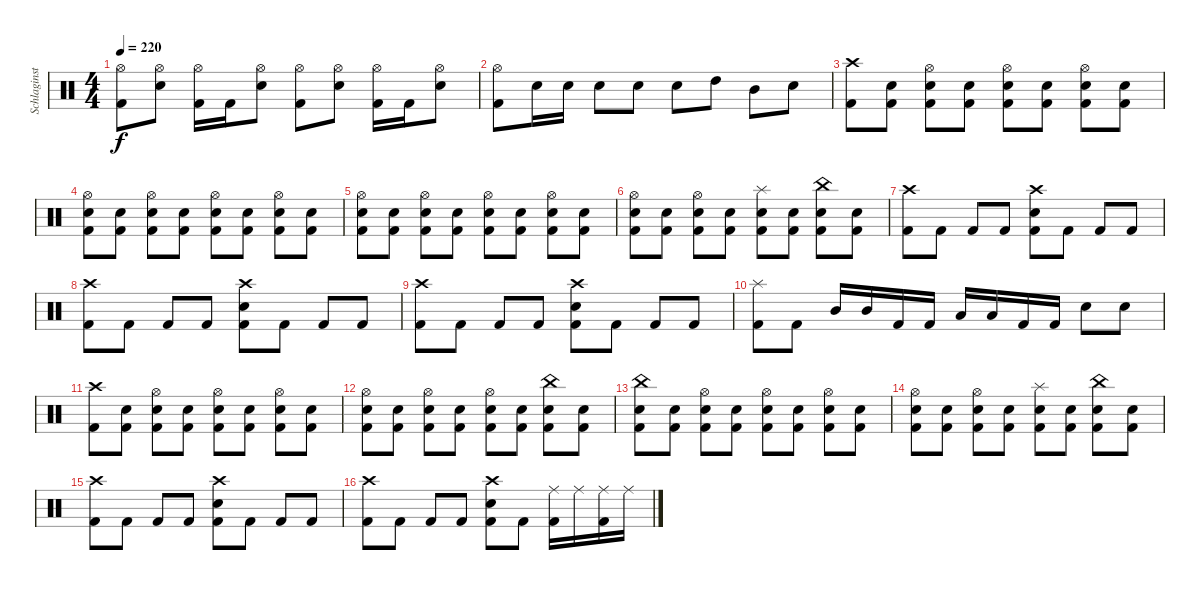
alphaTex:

\track ("Schlaginstrumente - Auswahl" "Schlaginst") {instrument percussion}
\staff {score}
\articulation defaults
\ts (4 4)
\tempo 220
\clef neutral
\ks c
("Hi-Hat (open)" "Kick (hit) 2").8{dy f} ("Hi-Hat (open)" "Snare (hit) 2").8 ("Hi-Hat (open)" "Kick (hit) 2").16 "Kick (hit) 2".16 ("Hi-Hat (open)" "Snare (hit) 2").8 ("Hi-Hat (open)" "Kick (hit) 2").8 ("Hi-Hat (open)" "Snare (hit) 2").8 ("Hi-Hat (open)" "Kick (hit) 2").16 "Kick (hit) 2".16 ("Hi-Hat (open)" "Snare (hit) 2").8 |
("Hi-Hat (open)" "Kick (hit) 2").8 "Snare (hit) 2".16 "Snare (hit) 2".16 "Snare (hit) 2".8 "Snare (hit) 2".8 "Snare (hit) 2".8 "High Tom (hit)".8 "Mid Tom (hit)".8 "Snare (hit) 2".8 |
("Crash high (hit)" "Kick (hit) 2").8 ("Snare (hit) 2" "Kick (hit) 2").8 ("Hi-Hat (open)" "Snare (hit) 2" "Kick (hit) 2").8 ("Snare (hit) 2" "Kick (hit) 2").8 ("Hi-Hat (open)" "Snare (hit) 2" "Kick (hit) 2").8 ("Snare (hit) 2" "Kick (hit) 2").8 ("Hi-Hat (open)" "Snare (hit) 2" "Kick (hit) 2").8 ("Snare (hit) 2" "Kick (hit) 2").8 |
("Hi-Hat (open)" "Snare (hit) 2" "Kick (hit) 2").8 ("Snare (hit) 2" "Kick (hit) 2").8 ("Hi-Hat (open)" "Snare (hit) 2" "Kick (hit) 2").8 ("Snare (hit) 2" "Kick (hit) 2").8 ("Hi-Hat (open)" "Snare (hit) 2" "Kick (hit) 2").8 ("Snare (hit) 2" "Kick (hit) 2").8 ("Hi-Hat (open)" "Snare (hit) 2" "Kick (hit) 2").8 ("Snare (hit) 2" "Kick (hit) 2").8 |
("Hi-Hat (open)" "Snare (hit) 2" "Kick (hit) 2").8 ("Snare (hit) 2" "Kick (hit) 2").8 ("Hi-Hat (open)" "Snare (hit) 2" "Kick (hit) 2").8 ("Snare (hit) 2" "Kick (hit) 2").8 ("Hi-Hat (open)" "Snare (hit) 2" "Kick (hit) 2").8 ("Snare (hit) 2" "Kick (hit) 2").8 ("Hi-Hat (open)" "Snare (hit) 2" "Kick (hit) 2").8 ("Snare (hit) 2" "Kick (hit) 2").8 |
("Hi-Hat (open)" "Snare (hit) 2" "Kick (hit) 2").8 ("Snare (hit) 2" "Kick (hit) 2").8 ("Hi-Hat (open)" "Snare (hit) 2" "Kick (hit) 2").8 ("Snare (hit) 2" "Kick (hit) 2").8 ("Splash (hit)" "Snare (hit) 2" "Kick (hit) 2").8 ("Snare (hit) 2" "Kick (hit) 2").8 ("China (hit)" "Snare (hit) 2" "Kick (hit) 2").8 ("Snare (hit) 2" "Kick (hit) 2").8 |
("Crash high (hit)" "Kick (hit) 2").8 "Kick (hit) 2".8 "Kick (hit) 2".8 "Kick (hit) 2".8 ("Crash high (hit)" "Snare (hit) 2" "Kick (hit) 2").8 "Kick (hit) 2".8 "Kick (hit) 2".8 "Kick (hit) 2".8 |
("Crash high (hit)" "Kick (hit) 2").8 "Kick (hit) 2".8 "Kick (hit) 2".8 "Kick (hit) 2".8 ("Crash high (hit)" "Snare (hit) 2" "Kick (hit) 2").8 "Kick (hit) 2".8 "Kick (hit) 2".8 "Kick (hit) 2".8 |
("Crash high (hit)" "Kick (hit) 2").8 "Kick (hit) 2".8 "Kick (hit) 2".8 "Kick (hit) 2".8 ("Crash high (hit)" "Snare (hit) 2" "Kick (hit) 2").8 "Kick (hit) 2".8 "Kick (hit) 2".8 "Kick (hit) 2".8 |
("Splash (hit)" "Kick (hit) 2").8 "Kick (hit) 2".8 "Mid Tom (hit)".16 "Mid Tom (hit)".16 "Kick (hit) 2".16 "Kick (hit) 2".16 "Low Tom (hit)".16 "Low Tom (hit)".16 "Kick (hit) 2".16 "Kick (hit) 2".16 "Snare (hit) 2".8 "Snare (hit) 2".8 |
("Crash high (hit)" "Kick (hit) 2").8 ("Snare (hit) 2" "Kick (hit) 2").8 ("Hi-Hat (open)" "Snare (hit) 2" "Kick (hit) 2").8 ("Snare (hit) 2" "Kick (hit) 2").8 ("Hi-Hat (open)" "Snare (hit) 2" "Kick (hit) 2").8 ("Snare (hit) 2" "Kick (hit) 2").8 ("Hi-Hat (open)" "Snare (hit) 2" "Kick (hit) 2").8 ("Snare (hit) 2" "Kick (hit) 2").8 |
("Hi-Hat (open)" "Snare (hit) 2" "Kick (hit) 2").8 ("Snare (hit) 2" "Kick (hit) 2").8 ("Hi-Hat (open)" "Snare (hit) 2" "Kick (hit) 2").8 ("Snare (hit) 2" "Kick (hit) 2").8 ("Hi-Hat (open)" "Snare (hit) 2" "Kick (hit) 2").8 ("Snare (hit) 2" "Kick (hit) 2").8 ("China (hit)" "Snare (hit) 2" "Kick (hit) 2").8 ("Snare (hit) 2" "Kick (hit) 2").8 |
("China (hit)" "Snare (hit) 2" "Kick (hit) 2").8 ("Snare (hit) 2" "Kick (hit) 2").8 ("Hi-Hat (open)" "Snare (hit) 2" "Kick (hit) 2").8 ("Snare (hit) 2" "Kick (hit) 2").8 ("Hi-Hat (open)" "Snare (hit) 2" "Kick (hit) 2").8 ("Snare (hit) 2" "Kick (hit) 2").8 ("Hi-Hat (open)" "Snare (hit) 2" "Kick (hit) 2").8 ("Snare (hit) 2" "Kick (hit) 2").8 |
("Hi-Hat (open)" "Snare (hit) 2" "Kick (hit) 2").8 ("Snare (hit) 2" "Kick (hit) 2").8 ("Hi-Hat (open)" "Snare (hit) 2" "Kick (hit) 2").8 ("Snare (hit) 2" "Kick (hit) 2").8 ("Splash (hit)" "Snare (hit) 2" "Kick (hit) 2").8 ("Snare (hit) 2" "Kick (hit) 2").8 ("China (hit)" "Snare (hit) 2" "Kick (hit) 2").8 ("Snare (hit) 2" "Kick (hit) 2").8 |
("Crash high (hit)" "Kick (hit) 2").8 "Kick (hit) 2".8 "Kick (hit) 2".8 "Kick (hit) 2".8 ("Crash high (hit)" "Snare (hit) 2" "Kick (hit) 2").8 "Kick (hit) 2".8 "Kick (hit) 2".8 "Kick (hit) 2".8 |
("Crash high (hit)" "Kick (hit) 2").8 "Kick (hit) 2".8 "Kick (hit) 2".8 "Kick (hit) 2".8 ("Crash high (hit)" "Snare (hit) 2" "Kick (hit) 2").8 "Kick (hit) 2".8 ("Ride (middle)" "Kick (hit) 2").16 "Ride (middle)".16 ("Ride (middle)" "Kick (hit) 2").16 "Ride (middle)".16
